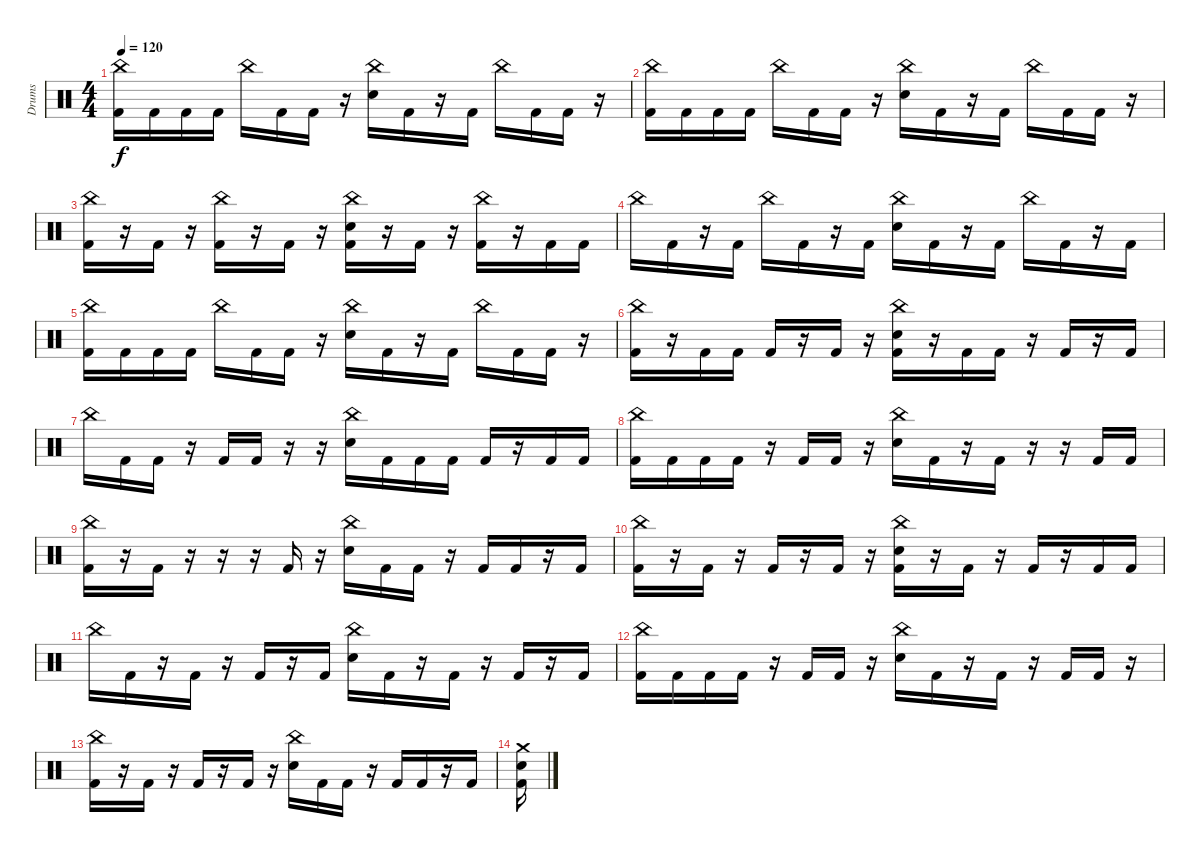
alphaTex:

\track ("Drums" "Drums") {instrument percussion}
\staff {score}
\articulation defaults
\ts (4 4)
\tempo 120
\clef neutral
\ks c
("China (hit)" "Kick (hit) 2").16{dy f} "Kick (hit) 2".16 "Kick (hit) 2".16 "Kick (hit) 2".16 "China (hit)".16 "Kick (hit) 2".16 "Kick (hit) 2".16 r.16 ("China (hit)" "Snare (hit) 2").16 "Kick (hit) 2".16 r.16 "Kick (hit) 2".16 "China (hit)".16 "Kick (hit) 2".16 "Kick (hit) 2".16 r.16 |
("China (hit)" "Kick (hit) 2").16 "Kick (hit) 2".16 "Kick (hit) 2".16 "Kick (hit) 2".16 "China (hit)".16 "Kick (hit) 2".16 "Kick (hit) 2".16 r.16 ("China (hit)" "Snare (hit) 2").16 "Kick (hit) 2".16 r.16 "Kick (hit) 2".16 "China (hit)".16 "Kick (hit) 2".16 "Kick (hit) 2".16 r.16 |
("China (hit)" "Kick (hit) 2").16 r.16 "Kick (hit) 2".16 r.16 ("China (hit)" "Kick (hit) 2").16 r.16 "Kick (hit) 2".16 r.16 ("China (hit)" "Snare (hit) 2" "Kick (hit) 2").16 r.16 "Kick (hit) 2".16 r.16 ("China (hit)" "Kick (hit) 2").16 r.16 "Kick (hit) 2".16 "Kick (hit) 2".16 |
"China (hit)".16 "Kick (hit) 2".16 r.16 "Kick (hit) 2".16 "China (hit)".16 "Kick (hit) 2".16 r.16 "Kick (hit) 2".16 ("China (hit)" "Snare (hit) 2").16 "Kick (hit) 2".16 r.16 "Kick (hit) 2".16 "China (hit)".16 "Kick (hit) 2".16 r.16 "Kick (hit) 2".16 |
("China (hit)" "Kick (hit) 2").16 "Kick (hit) 2".16 "Kick (hit) 2".16 "Kick (hit) 2".16 "China (hit)".16 "Kick (hit) 2".16 "Kick (hit) 2".16 r.16 ("China (hit)" "Snare (hit) 2").16 "Kick (hit) 2".16 r.16 "Kick (hit) 2".16 "China (hit)".16 "Kick (hit) 2".16 "Kick (hit) 2".16 r.16 |
("China (hit)" "Kick (hit) 2").16 r.16 "Kick (hit) 2".16 "Kick (hit) 2".16 "Kick (hit) 2".16 r.16 "Kick (hit) 2".16 r.16 ("China (hit)" "Snare (hit) 2" "Kick (hit) 2").16 r.16 "Kick (hit) 2".16 "Kick (hit) 2".16 r.16 "Kick (hit) 2".16 r.16 "Kick (hit) 2".16 |
"China (hit)".16 "Kick (hit) 2".16 "Kick (hit) 2".16 r.16 "Kick (hit) 2".16 "Kick (hit) 2".16 r.16 r.16 ("China (hit)" "Snare (hit) 2").16 "Kick (hit) 2".16 "Kick (hit) 2".16 "Kick (hit) 2".16 "Kick (hit) 2".16 r.16 "Kick (hit) 2".16 "Kick (hit) 2".16 |
("China (hit)" "Kick (hit) 2").16 "Kick (hit) 2".16 "Kick (hit) 2".16 "Kick (hit) 2".16 r.16 "Kick (hit) 2".16 "Kick (hit) 2".16 r.16 ("China (hit)" "Snare (hit) 2").16 "Kick (hit) 2".16 r.16 "Kick (hit) 2".16 r.16 r.16 "Kick (hit) 2".16 "Kick (hit) 2".16 |
("China (hit)" "Kick (hit) 2").16 r.16 "Kick (hit) 2".16 r.16 r.16 r.16 "Kick (hit) 2".16 r.16 ("China (hit)" "Snare (hit) 2").16 "Kick (hit) 2".16 "Kick (hit) 2".16 r.16 "Kick (hit) 2".16 "Kick (hit) 2".16 r.16 "Kick (hit) 2".16 |
("China (hit)" "Kick (hit) 2").16 r.16 "Kick (hit) 2".16 r.16 "Kick (hit) 2".16 r.16 "Kick (hit) 2".16 r.16 ("China (hit)" "Snare (hit) 2" "Kick (hit) 2").16 r.16 "Kick (hit) 2".16 r.16 "Kick (hit) 2".16 r.16 "Kick (hit) 2".16 "Kick (hit) 2".16 |
"China (hit)".16 "Kick (hit) 2".16 r.16 "Kick (hit) 2".16 r.16 "Kick (hit) 2".16 r.16 "Kick (hit) 2".16 ("China (hit)" "Snare (hit) 2").16 "Kick (hit) 2".16 r.16 "Kick (hit) 2".16 r.16 "Kick (hit) 2".16 r.16 "Kick (hit) 2".16 |
("China (hit)" "Kick (hit) 2").16 "Kick (hit) 2".16 "Kick (hit) 2".16 "Kick (hit) 2".16 r.16 "Kick (hit) 2".16 "Kick (hit) 2".16 r.16 ("China (hit)" "Snare (hit) 2").16 "Kick (hit) 2".16 r.16 "Kick (hit) 2".16 r.16 "Kick (hit) 2".16 "Kick (hit) 2".16 r.16 |
("China (hit)" "Kick (hit) 2").16 r.16 "Kick (hit) 2".16 r.16 "Kick (hit) 2".16 r.16 "Kick (hit) 2".16 r.16 ("China (hit)" "Snare (hit) 2").16 "Kick (hit) 2".16 "Kick (hit) 2".16 r.16 "Kick (hit) 2".16 "Kick (hit) 2".16 r.16 "Kick (hit) 2".16 |
("Crash medium (hit)" "Snare (hit) 2" "Kick (hit) 2").16
